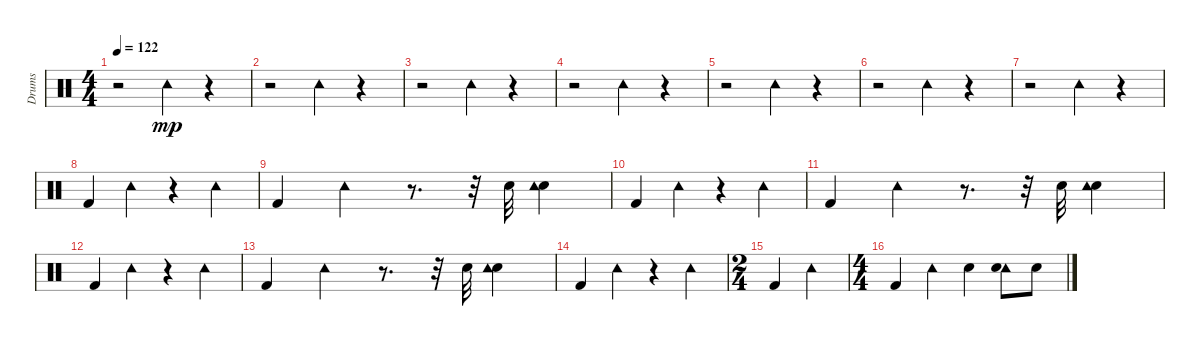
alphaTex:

\track ("Drums" "Drums") {instrument percussion}
\staff {score}
\articulation defaults
\ts (4 4)
\tempo 122
\clef neutral
\ks c
r.2{dy mp} "Tambourine (hit)".4 r.4 |
r.2 "Tambourine (hit)".4 r.4 |
r.2 "Tambourine (hit)".4 r.4 |
r.2 "Tambourine (hit)".4 r.4 |
r.2 "Tambourine (hit)".4 r.4 |
r.2 "Tambourine (hit)".4 r.4 |
r.2 "Tambourine (hit)".4 r.4 |
"Kick (hit) 2".4 "Tambourine (hit)".4 r.4 "Tambourine (hit)".4 |
"Kick (hit) 2".4 "Tambourine (hit)".4 r.8{d} r.32 "Hand Clap (hit)".32 ("Hand Clap (hit)" "Tambourine (hit)").4 |
"Kick (hit) 2".4 "Tambourine (hit)".4 r.4 "Tambourine (hit)".4 |
"Kick (hit) 2".4 "Tambourine (hit)".4 r.8{d} r.32 "Hand Clap (hit)".32 ("Hand Clap (hit)" "Tambourine (hit)").4 |
"Kick (hit) 2".4 "Tambourine (hit)".4 r.4 "Tambourine (hit)".4 |
"Kick (hit) 2".4 "Tambourine (hit)".4 r.8{d} r.32 "Hand Clap (hit)".32 ("Hand Clap (hit)" "Tambourine (hit)").4 |
"Kick (hit) 2".4 "Tambourine (hit)".4 r.4 "Tambourine (hit)".4 |
\ts (2 4)
"Kick (hit) 2".4 "Tambourine (hit)".4 |
\ts (4 4)
"Kick (hit) 2".4 "Tambourine (hit)".4 "Snare (hit) 2".4 ("Tambourine (hit)" "Snare (hit) 2").8 "Snare (hit) 2".8
